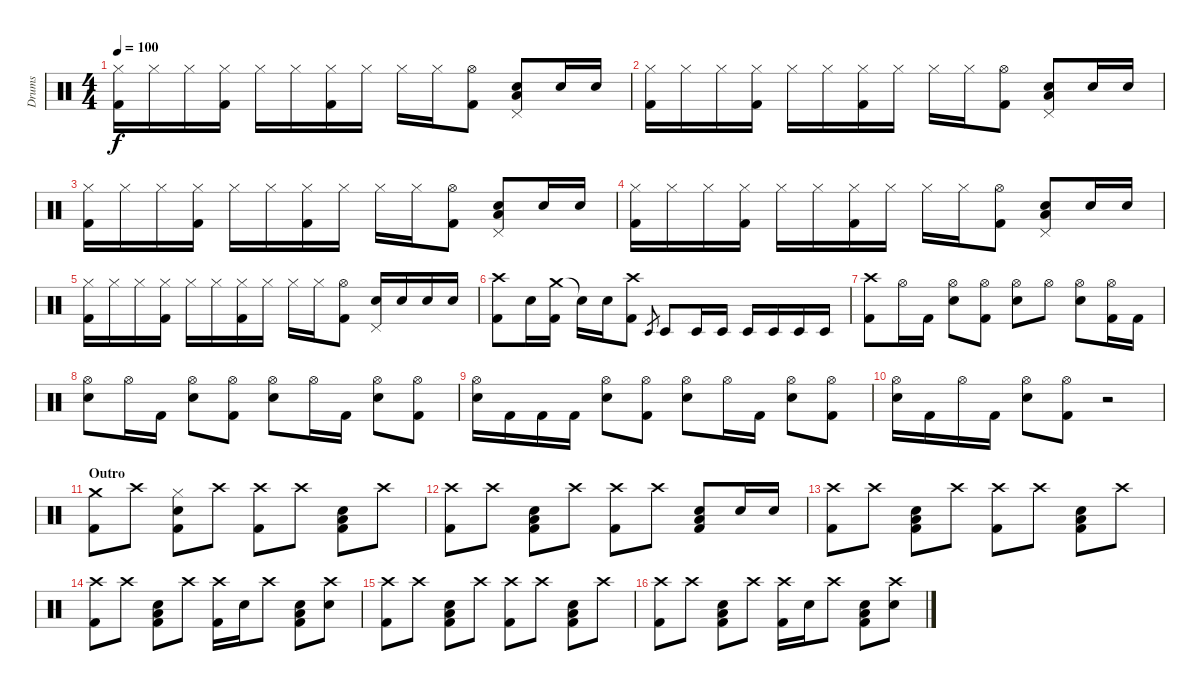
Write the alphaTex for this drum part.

\track ("Drums" "Drums") {instrument percussion}
\staff {score}
\articulation defaults
\ts (4 4)
\tempo 100
\clef neutral
\ks c
("Kick (hit) 2" "Hi-Hat (closed)").16{dy f} "Hi-Hat (closed)".16 "Hi-Hat (closed)".16 ("Hi-Hat (closed)" "Kick (hit) 2").16 "Hi-Hat (closed)".16 "Hi-Hat (closed)".16 ("Hi-Hat (closed)" "Kick (hit) 2").16 "Hi-Hat (closed)".16 "Hi-Hat (closed)".16 "Hi-Hat (closed)".16 ("Kick (hit) 2" "Hi-Hat (open)").8 ("Snare (hit) 2" "Low Floor Tom (hit)" "Pedal Hi-Hat (hit)").8 "Snare (hit) 2".16 "Snare (hit) 2".16 |
("Kick (hit) 2" "Hi-Hat (closed)").16 "Hi-Hat (closed)".16 "Hi-Hat (closed)".16 ("Hi-Hat (closed)" "Kick (hit) 2").16 "Hi-Hat (closed)".16 "Hi-Hat (closed)".16 ("Hi-Hat (closed)" "Kick (hit) 2").16 "Hi-Hat (closed)".16 "Hi-Hat (closed)".16 "Hi-Hat (closed)".16 ("Kick (hit) 2" "Hi-Hat (open)").8 ("Snare (hit) 2" "Low Floor Tom (hit)" "Pedal Hi-Hat (hit)").8 "Snare (hit) 2".16 "Snare (hit) 2".16 |
("Kick (hit) 2" "Hi-Hat (closed)").16 "Hi-Hat (closed)".16 "Hi-Hat (closed)".16 ("Hi-Hat (closed)" "Kick (hit) 2").16 "Hi-Hat (closed)".16 "Hi-Hat (closed)".16 ("Hi-Hat (closed)" "Kick (hit) 2").16 "Hi-Hat (closed)".16 "Hi-Hat (closed)".16 "Hi-Hat (closed)".16 ("Kick (hit) 2" "Hi-Hat (open)").8 ("Snare (hit) 2" "Low Floor Tom (hit)" "Pedal Hi-Hat (hit)").8 "Snare (hit) 2".16 "Snare (hit) 2".16 |
("Kick (hit) 2" "Hi-Hat (closed)").16 "Hi-Hat (closed)".16 "Hi-Hat (closed)".16 ("Hi-Hat (closed)" "Kick (hit) 2").16 "Hi-Hat (closed)".16 "Hi-Hat (closed)".16 ("Hi-Hat (closed)" "Kick (hit) 2").16 "Hi-Hat (closed)".16 "Hi-Hat (closed)".16 "Hi-Hat (closed)".16 ("Kick (hit) 2" "Hi-Hat (open)").8 ("Snare (hit) 2" "Low Floor Tom (hit)" "Pedal Hi-Hat (hit)").8 "Snare (hit) 2".16 "Snare (hit) 2".16 |
("Hi-Hat (closed)" "Kick (hit) 2").16 "Hi-Hat (closed)".16 "Hi-Hat (closed)".16 ("Hi-Hat (closed)" "Kick (hit) 2").16 "Hi-Hat (closed)".16 "Hi-Hat (closed)".16 ("Kick (hit) 2" "Hi-Hat (closed)").16 "Hi-Hat (closed)".16 "Hi-Hat (closed)".16 "Hi-Hat (closed)".16 ("Hi-Hat (open)" "Kick (hit) 2").8 ("Snare (hit) 2" "Pedal Hi-Hat (hit)").16 "Snare (hit) 2".16 "Snare (hit) 2".16 "Snare (hit) 2".16 |
("Crash high (hit)" "Kick (hit) 2").8 "Snare (hit) 2".16 ("Crash medium (hit)" "Kick (hit) 2").16 "Snare (hit)"{t}.16 "Snare (hit) 2".16 ("Kick (hit) 2" "Crash high (hit)").8 "Timbale low (hit)".8{gr} "Timbale low (hit)".8 "Timbale low (hit)".16 "Timbale low (hit)".16 "Timbale low (hit)".16 "Timbale low (hit)".16 "Timbale low (hit)".16 "Timbale low (hit)".16 |
("Kick (hit) 2" "Crash high (hit)").8 "Hi-Hat (open)".16 "Kick (hit) 2".16 ("Snare (hit) 2" "Hi-Hat (open)").8 ("Hi-Hat (open)" "Kick (hit) 2").8 ("Hi-Hat (open)" "Snare (hit) 2").8 "Hi-Hat (open)".8 ("Hi-Hat (open)" "Snare (hit) 2").8 ("Kick (hit) 2" "Hi-Hat (open)").16 "Kick (hit) 2".16 |
("Hi-Hat (open)" "Snare (hit) 2").8 "Hi-Hat (open)".16 "Kick (hit) 2".16 ("Hi-Hat (open)" "Snare (hit) 2").8 ("Hi-Hat (open)" "Kick (hit) 2").8 ("Snare (hit) 2" "Hi-Hat (open)").8 "Hi-Hat (open)".16 "Kick (hit) 2".16 ("Hi-Hat (open)" "Snare (hit) 2").8 ("Hi-Hat (open)" "Kick (hit) 2").8 |
("Hi-Hat (open)" "Snare (hit) 2").16 "Kick (hit) 2".16 "Kick (hit) 2".16 "Kick (hit) 2".16 ("Snare (hit) 2" "Hi-Hat (open)").8 ("Hi-Hat (open)" "Kick (hit) 2").8 ("Snare (hit) 2" "Hi-Hat (open)").8 "Hi-Hat (open)".16 "Kick (hit) 2".16 ("Hi-Hat (open)" "Snare (hit) 2").8 ("Kick (hit) 2" "Hi-Hat (open)").8 |
("Hi-Hat (open)" "Snare (hit) 2").16 "Kick (hit) 2".16 "Hi-Hat (open)".16 "Kick (hit) 2".16 ("Snare (hit) 2" "Hi-Hat (open)").8 ("Kick (hit) 2" "Hi-Hat (open)").8 r.2 |
\section ("" "Outro")
("Kick (hit) 2" "Crash medium (hit)").8 "Crash high (hit)".8 ("Kick (hit) 2" "Snare (hit) 2" "Hi-Hat (closed)").8 "Crash high (hit)".8 ("Crash high (hit)" "Kick (hit) 2").8 "Crash high (hit)".8 ("Kick (hit) 2" "Low Floor Tom (hit)" "Snare (hit) 2").8 "Crash high (hit)".8 |
("Crash high (hit)" "Kick (hit) 2").8 "Crash high (hit)".8 ("Kick (hit) 2" "Low Floor Tom (hit)" "Snare (hit) 2").8 "Crash high (hit)".8 ("Kick (hit) 2" "Crash high (hit)").8 "Crash high (hit)".8 ("Kick (hit) 2" "Snare (hit) 2" "Low Floor Tom (hit)").8 "Snare (hit) 2".16 "Snare (hit) 2".16 |
("Crash high (hit)" "Kick (hit) 2").8 "Crash high (hit)".8 ("Kick (hit) 2" "Low Floor Tom (hit)" "Snare (hit) 2").8 "Crash high (hit)".8 ("Kick (hit) 2" "Crash high (hit)").8 "Crash high (hit)".8 ("Snare (hit) 2" "Kick (hit) 2" "Low Floor Tom (hit)").8 "Crash high (hit)".8 |
("Kick (hit) 2" "Crash high (hit)").8 "Crash high (hit)".8 ("Kick (hit) 2" "Snare (hit) 2" "Low Floor Tom (hit)").8 "Crash high (hit)".8 ("Crash high (hit)" "Kick (hit) 2").16 "Snare (hit) 2".16 "Crash high (hit)".8 ("Kick (hit) 2" "Snare (hit) 2" "Low Floor Tom (hit)").8 ("Crash high (hit)" "Snare (hit) 2").8 |
("Crash high (hit)" "Kick (hit) 2").8{volume 12} "Crash high (hit)".8 ("Kick (hit) 2" "Low Floor Tom (hit)" "Snare (hit) 2").8 "Crash high (hit)".8 ("Kick (hit) 2" "Crash high (hit)").8 "Crash high (hit)".8 ("Snare (hit) 2" "Kick (hit) 2" "Low Floor Tom (hit)").8 "Crash high (hit)".8 |
("Kick (hit) 2" "Crash high (hit)").8 "Crash high (hit)".8 ("Kick (hit) 2" "Snare (hit) 2" "Low Floor Tom (hit)").8 "Crash high (hit)".8 ("Crash high (hit)" "Kick (hit) 2").16 "Snare (hit) 2".16 "Crash high (hit)".8 ("Kick (hit) 2" "Snare (hit) 2" "Low Floor Tom (hit)").8 ("Crash high (hit)" "Snare (hit) 2").8
